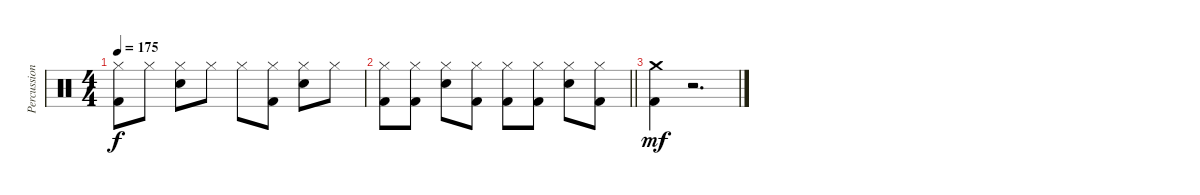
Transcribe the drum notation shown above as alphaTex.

\track ("Percussion" "Percussion") {instrument percussion}
\staff {score}
\articulation defaults
\ts (4 4)
\tempo 175
\clef neutral
\ks c
("Hi-Hat (closed)" "Kick (hit) 2").8{dy f} "Hi-Hat (closed)".8 ("Hi-Hat (closed)" "Snare (hit) 2").8 "Hi-Hat (closed)".8 "Hi-Hat (closed)".8 ("Hi-Hat (closed)" "Kick (hit) 2").8 ("Hi-Hat (closed)" "Snare (hit) 2").8 "Hi-Hat (closed)".8 |
\barLineRight lightlight
("Hi-Hat (closed)" "Kick (hit) 2").8 ("Hi-Hat (closed)" "Kick (hit) 2").8 ("Hi-Hat (closed)" "Snare (hit) 2").8 ("Hi-Hat (closed)" "Kick (hit) 2").8 ("Hi-Hat (closed)" "Kick (hit) 2").8 ("Hi-Hat (closed)" "Kick (hit) 2").8 ("Hi-Hat (closed)" "Snare (hit) 2").8 ("Hi-Hat (closed)" "Kick (hit) 2").8 |
("Crash medium (hit)" "Kick (hit) 2").4{dy mf} r.2{d}
